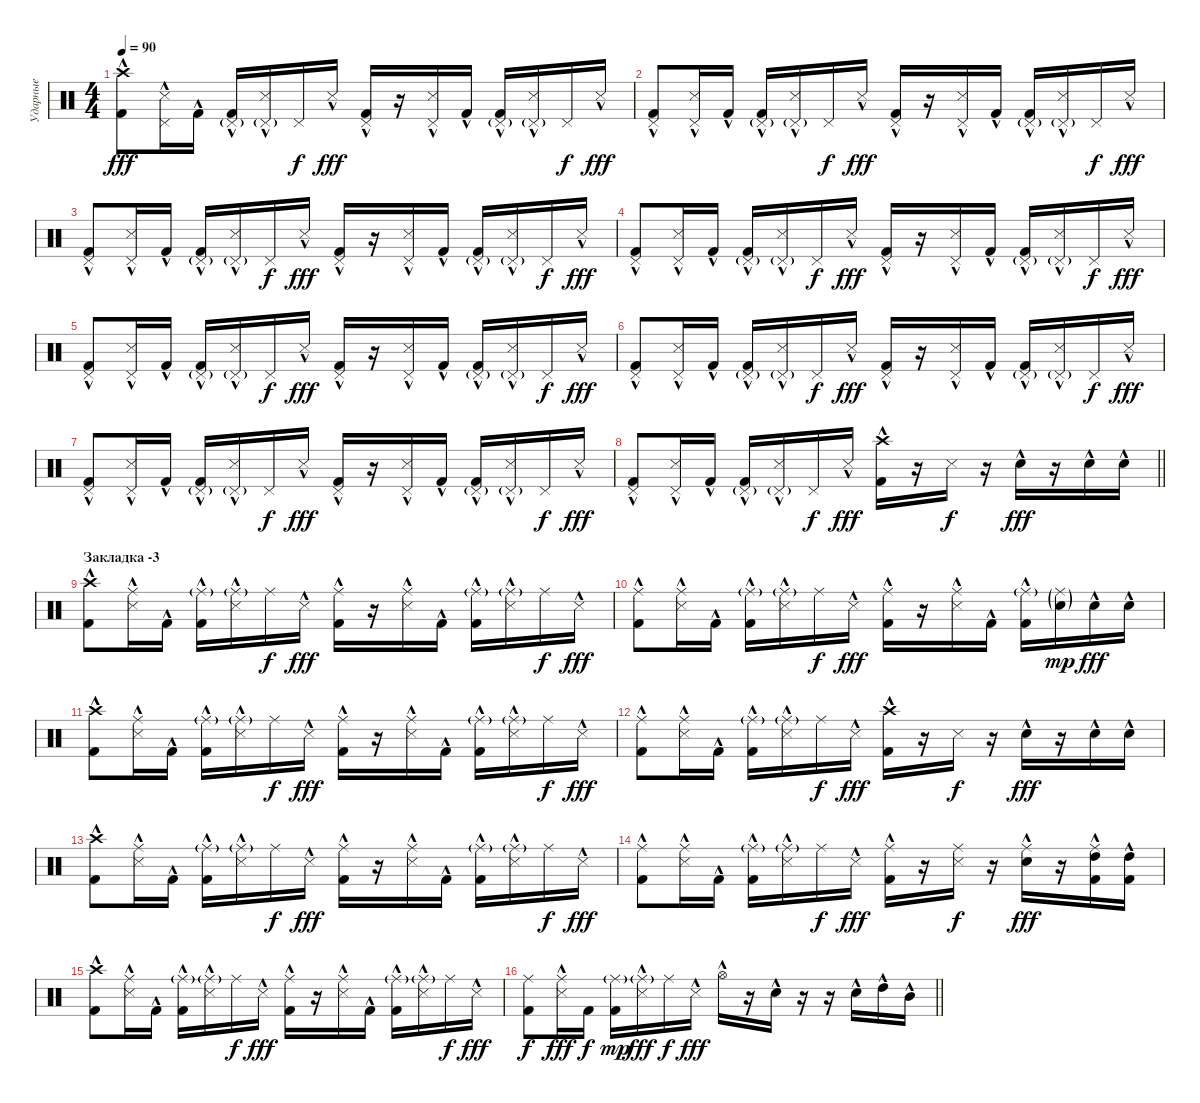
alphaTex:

\track ("Ударные" "Ударные") {instrument percussion}
\staff {score}
\articulation defaults
\ts (4 4)
\tempo 90
\clef neutral
\ks c
("Crash high (hit)" "Kick (hit) 2"{hac}).8{dy fff} ("Pedal Hi-Hat (hit)" "Snare (side stick) 3"{hac}).16 "Kick (hit) 2"{hac}.16 ("Pedal Hi-Hat (hit)"{g} "Kick (hit) 2"{hac}).16 ("Pedal Hi-Hat (hit)"{g} "Snare (side stick) 3"{hac}).16 "Pedal Hi-Hat (hit)".16{dy f} "Snare (side stick) 3"{hac}.16{dy fff} ("Pedal Hi-Hat (hit)" "Kick (hit) 2"{hac}).16 r.16 ("Pedal Hi-Hat (hit)" "Snare (side stick) 3"{hac}).16 "Kick (hit) 2"{hac}.16 ("Pedal Hi-Hat (hit)"{g} "Kick (hit) 2"{hac}).16 ("Pedal Hi-Hat (hit)"{g} "Snare (side stick) 3"{hac}).16 "Pedal Hi-Hat (hit)".16{dy f} "Snare (side stick) 3"{hac}.16{dy fff} |
("Pedal Hi-Hat (hit)" "Kick (hit) 2"{hac}).8 ("Pedal Hi-Hat (hit)" "Snare (side stick) 3"{hac}).16 "Kick (hit) 2"{hac}.16 ("Pedal Hi-Hat (hit)"{g} "Kick (hit) 2"{hac}).16 ("Pedal Hi-Hat (hit)"{g} "Snare (side stick) 3"{hac}).16 "Pedal Hi-Hat (hit)".16{dy f} "Snare (side stick) 3"{hac}.16{dy fff} ("Pedal Hi-Hat (hit)" "Kick (hit) 2"{hac}).16 r.16 ("Pedal Hi-Hat (hit)" "Snare (side stick) 3"{hac}).16 "Kick (hit) 2"{hac}.16 ("Pedal Hi-Hat (hit)"{g} "Kick (hit) 2"{hac}).16 ("Pedal Hi-Hat (hit)"{g} "Snare (side stick) 3"{hac}).16 "Pedal Hi-Hat (hit)".16{dy f} "Snare (side stick) 3"{hac}.16{dy fff} |
("Pedal Hi-Hat (hit)" "Kick (hit) 2"{hac}).8 ("Pedal Hi-Hat (hit)" "Snare (side stick) 3"{hac}).16 "Kick (hit) 2"{hac}.16 ("Pedal Hi-Hat (hit)"{g} "Kick (hit) 2"{hac}).16 ("Pedal Hi-Hat (hit)"{g} "Snare (side stick) 3"{hac}).16 "Pedal Hi-Hat (hit)".16{dy f} "Snare (side stick) 3"{hac}.16{dy fff} ("Pedal Hi-Hat (hit)" "Kick (hit) 2"{hac}).16 r.16 ("Pedal Hi-Hat (hit)" "Snare (side stick) 3"{hac}).16 "Kick (hit) 2"{hac}.16 ("Pedal Hi-Hat (hit)"{g} "Kick (hit) 2"{hac}).16 ("Pedal Hi-Hat (hit)"{g} "Snare (side stick) 3"{hac}).16 "Pedal Hi-Hat (hit)".16{dy f} "Snare (side stick) 3"{hac}.16{dy fff} |
("Pedal Hi-Hat (hit)" "Kick (hit) 2"{hac}).8 ("Pedal Hi-Hat (hit)" "Snare (side stick) 3"{hac}).16 "Kick (hit) 2"{hac}.16 ("Pedal Hi-Hat (hit)"{g} "Kick (hit) 2"{hac}).16 ("Pedal Hi-Hat (hit)"{g} "Snare (side stick) 3"{hac}).16 "Pedal Hi-Hat (hit)".16{dy f} "Snare (side stick) 3"{hac}.16{dy fff} ("Pedal Hi-Hat (hit)" "Kick (hit) 2"{hac}).16 r.16 ("Pedal Hi-Hat (hit)" "Snare (side stick) 3"{hac}).16 "Kick (hit) 2"{hac}.16 ("Pedal Hi-Hat (hit)"{g} "Kick (hit) 2"{hac}).16 ("Pedal Hi-Hat (hit)"{g} "Snare (side stick) 3"{hac}).16 "Pedal Hi-Hat (hit)".16{dy f} "Snare (side stick) 3"{hac}.16{dy fff} |
("Pedal Hi-Hat (hit)" "Kick (hit) 2"{hac}).8 ("Pedal Hi-Hat (hit)" "Snare (side stick) 3"{hac}).16 "Kick (hit) 2"{hac}.16 ("Pedal Hi-Hat (hit)"{g} "Kick (hit) 2"{hac}).16 ("Pedal Hi-Hat (hit)"{g} "Snare (side stick) 3"{hac}).16 "Pedal Hi-Hat (hit)".16{dy f} "Snare (side stick) 3"{hac}.16{dy fff} ("Pedal Hi-Hat (hit)" "Kick (hit) 2"{hac}).16 r.16 ("Pedal Hi-Hat (hit)" "Snare (side stick) 3"{hac}).16 "Kick (hit) 2"{hac}.16 ("Pedal Hi-Hat (hit)"{g} "Kick (hit) 2"{hac}).16 ("Pedal Hi-Hat (hit)"{g} "Snare (side stick) 3"{hac}).16 "Pedal Hi-Hat (hit)".16{dy f} "Snare (side stick) 3"{hac}.16{dy fff} |
("Pedal Hi-Hat (hit)" "Kick (hit) 2"{hac}).8 ("Pedal Hi-Hat (hit)" "Snare (side stick) 3"{hac}).16 "Kick (hit) 2"{hac}.16 ("Pedal Hi-Hat (hit)"{g} "Kick (hit) 2"{hac}).16 ("Pedal Hi-Hat (hit)"{g} "Snare (side stick) 3"{hac}).16 "Pedal Hi-Hat (hit)".16{dy f} "Snare (side stick) 3"{hac}.16{dy fff} ("Pedal Hi-Hat (hit)" "Kick (hit) 2"{hac}).16 r.16 ("Pedal Hi-Hat (hit)" "Snare (side stick) 3"{hac}).16 "Kick (hit) 2"{hac}.16 ("Pedal Hi-Hat (hit)"{g} "Kick (hit) 2"{hac}).16 ("Pedal Hi-Hat (hit)"{g} "Snare (side stick) 3"{hac}).16 "Pedal Hi-Hat (hit)".16{dy f} "Snare (side stick) 3"{hac}.16{dy fff} |
("Pedal Hi-Hat (hit)" "Kick (hit) 2"{hac}).8 ("Pedal Hi-Hat (hit)" "Snare (side stick) 3"{hac}).16 "Kick (hit) 2"{hac}.16 ("Pedal Hi-Hat (hit)"{g} "Kick (hit) 2"{hac}).16 ("Pedal Hi-Hat (hit)"{g} "Snare (side stick) 3"{hac}).16 "Pedal Hi-Hat (hit)".16{dy f} "Snare (side stick) 3"{hac}.16{dy fff} ("Pedal Hi-Hat (hit)" "Kick (hit) 2"{hac}).16 r.16 ("Pedal Hi-Hat (hit)" "Snare (side stick) 3"{hac}).16 "Kick (hit) 2"{hac}.16 ("Pedal Hi-Hat (hit)"{g} "Kick (hit) 2"{hac}).16 ("Pedal Hi-Hat (hit)"{g} "Snare (side stick) 3"{hac}).16 "Pedal Hi-Hat (hit)".16{dy f} "Snare (side stick) 3"{hac}.16{dy fff} |
\barLineRight lightlight
("Pedal Hi-Hat (hit)" "Kick (hit) 2"{hac}).8 ("Pedal Hi-Hat (hit)" "Snare (side stick) 3"{hac}).16 "Kick (hit) 2"{hac}.16 ("Pedal Hi-Hat (hit)"{g} "Kick (hit) 2"{hac}).16 ("Pedal Hi-Hat (hit)"{g} "Snare (side stick) 3"{hac}).16 "Pedal Hi-Hat (hit)".16{dy f} "Snare (side stick) 3"{hac}.16{dy fff} ("Crash high (hit)" "Kick (hit) 2"{hac}).16 r.16 "Snare (side stick) 3".16{dy f} r.16 "Electric Snare (hit)"{hac}.16{dy fff} r.16 "Electric Snare (hit)"{hac}.16 "Electric Snare (hit)"{hac}.16 |
\section ("" "Закладка -3")
("Crash high (hit)" "Kick (hit) 2"{hac}).8 ("Ride (middle)" "Snare (side stick) 3"{hac}).16 "Kick (hit) 2"{hac}.16 ("Ride (middle)"{g} "Kick (hit) 2"{hac}).16 ("Ride (middle)"{g} "Snare (side stick) 3"{hac}).16 "Ride (middle)".16{dy f} "Snare (side stick) 3"{hac}.16{dy fff} ("Ride (middle)" "Kick (hit) 2"{hac}).16 r.16 ("Ride (middle)" "Snare (side stick) 3"{hac}).16 "Kick (hit) 2"{hac}.16 ("Ride (middle)"{g} "Kick (hit) 2"{hac}).16 ("Ride (middle)"{g} "Snare (side stick) 3"{hac}).16 "Ride (middle)".16{dy f} "Snare (side stick) 3"{hac}.16{dy fff} |
("Ride (middle)" "Kick (hit) 2"{hac}).8 ("Ride (middle)" "Snare (side stick) 3"{hac}).16 "Kick (hit) 2"{hac}.16 ("Ride (middle)"{g} "Kick (hit) 2"{hac}).16 ("Ride (middle)"{g} "Snare (side stick) 3"{hac}).16 "Ride (middle)".16{dy f} "Snare (side stick) 3"{hac}.16{dy fff} ("Ride (middle)" "Kick (hit) 2"{hac}).16 r.16 ("Ride (middle)" "Snare (side stick) 3"{hac}).16 "Kick (hit) 2"{hac}.16 ("Ride (middle)"{g} "Kick (hit) 2"{hac}).16 ("Ride (middle)"{g} "Electric Snare (hit)"{g}).16{dy mp} "Electric Snare (hit)"{hac}.16{dy fff} "Electric Snare (hit)"{hac}.16 |
("Crash high (hit)" "Kick (hit) 2"{hac}).8 ("Ride (middle)" "Snare (side stick) 3"{hac}).16 "Kick (hit) 2"{hac}.16 ("Ride (middle)"{g} "Kick (hit) 2"{hac}).16 ("Ride (middle)"{g} "Snare (side stick) 3"{hac}).16 "Ride (middle)".16{dy f} "Snare (side stick) 3"{hac}.16{dy fff} ("Ride (middle)" "Kick (hit) 2"{hac}).16 r.16 ("Ride (middle)" "Snare (side stick) 3"{hac}).16 "Kick (hit) 2"{hac}.16 ("Ride (middle)"{g} "Kick (hit) 2"{hac}).16 ("Ride (middle)"{g} "Snare (side stick) 3"{hac}).16 "Ride (middle)".16{dy f} "Snare (side stick) 3"{hac}.16{dy fff} |
("Ride (middle)" "Kick (hit) 2"{hac}).8 ("Ride (middle)" "Snare (side stick) 3"{hac}).16 "Kick (hit) 2"{hac}.16 ("Ride (middle)"{g} "Kick (hit) 2"{hac}).16 ("Ride (middle)"{g} "Snare (side stick) 3"{hac}).16 "Ride (middle)".16{dy f} "Snare (side stick) 3"{hac}.16{dy fff} ("Crash high (hit)" "Kick (hit) 2"{hac}).16 r.16 "Snare (side stick) 3".16{dy f} r.16 "Electric Snare (hit)"{hac}.16{dy fff} r.16 "Electric Snare (hit)"{hac}.16 "Electric Snare (hit)"{hac}.16 |
("Crash high (hit)" "Kick (hit) 2"{hac}).8 ("Ride (middle)" "Snare (side stick) 3"{hac}).16 "Kick (hit) 2"{hac}.16 ("Ride (middle)"{g} "Kick (hit) 2"{hac}).16 ("Ride (middle)"{g} "Snare (side stick) 3"{hac}).16 "Ride (middle)".16{dy f} "Snare (side stick) 3"{hac}.16{dy fff} ("Ride (middle)" "Kick (hit) 2"{hac}).16 r.16 ("Ride (middle)" "Snare (side stick) 3"{hac}).16 "Kick (hit) 2"{hac}.16 ("Ride (middle)"{g} "Kick (hit) 2"{hac}).16 ("Ride (middle)"{g} "Snare (side stick) 3"{hac}).16 "Ride (middle)".16{dy f} "Snare (side stick) 3"{hac}.16{dy fff} |
("Ride (middle)" "Kick (hit) 2"{hac}).8 ("Ride (middle)" "Snare (side stick) 3"{hac}).16 "Kick (hit) 2"{hac}.16 ("Ride (middle)"{g} "Kick (hit) 2"{hac}).16 ("Ride (middle)"{g} "Snare (side stick) 3"{hac}).16 "Ride (middle)".16{dy f} "Snare (side stick) 3"{hac}.16{dy fff} ("Ride (middle)" "Kick (hit) 2"{hac}).16 r.16 ("Ride (middle)" "Snare (side stick) 3").16{dy f} r.16 ("Ride (middle)" "Electric Snare (hit)"{hac}).16{dy fff} r.16 ("Ride (middle)" "High Tom (hit)" "Kick (hit) 2"{hac}).16 ("High Tom (hit)" "Kick (hit) 2"{hac}).16 |
("Crash high (hit)" "Kick (hit) 2"{hac}).8 ("Ride (middle)" "Snare (side stick) 3"{hac}).16 "Kick (hit) 2"{hac}.16 ("Ride (middle)"{g} "Kick (hit) 2"{hac}).16 ("Ride (middle)"{g} "Snare (side stick) 3"{hac}).16 "Ride (middle)".16{dy f} "Snare (side stick) 3"{hac}.16{dy fff} ("Ride (middle)" "Kick (hit) 2"{hac}).16 r.16 ("Ride (middle)" "Snare (side stick) 3"{hac}).16 "Kick (hit) 2"{hac}.16 ("Ride (middle)"{g} "Kick (hit) 2"{hac}).16 ("Ride (middle)"{g} "Snare (side stick) 3"{hac}).16 "Ride (middle)".16{dy f} "Snare (side stick) 3"{hac}.16{dy fff} |
\barLineRight lightlight
("Ride (middle)" "Kick (hit) 2").8{dy f} ("Ride (middle)" "Snare (side stick) 3"{hac}).16{dy fff} "Kick (hit) 2".16{dy f} ("Ride (middle)"{g} "Kick (hit) 2").16{dy mp} ("Ride (middle)"{g} "Snare (side stick) 3"{hac}).16{dy fff} "Ride (middle)".16{dy f} "Snare (side stick) 3"{hac}.16{dy fff} "Hi-Hat (open)"{hac}.16 r.16 "Electric Snare (hit)"{hac}.16 r.16 r.16 "Electric Snare (hit)"{hac}.16 "High Tom (hit)"{hac}.16 "Mid Tom (hit)"{hac}.16
